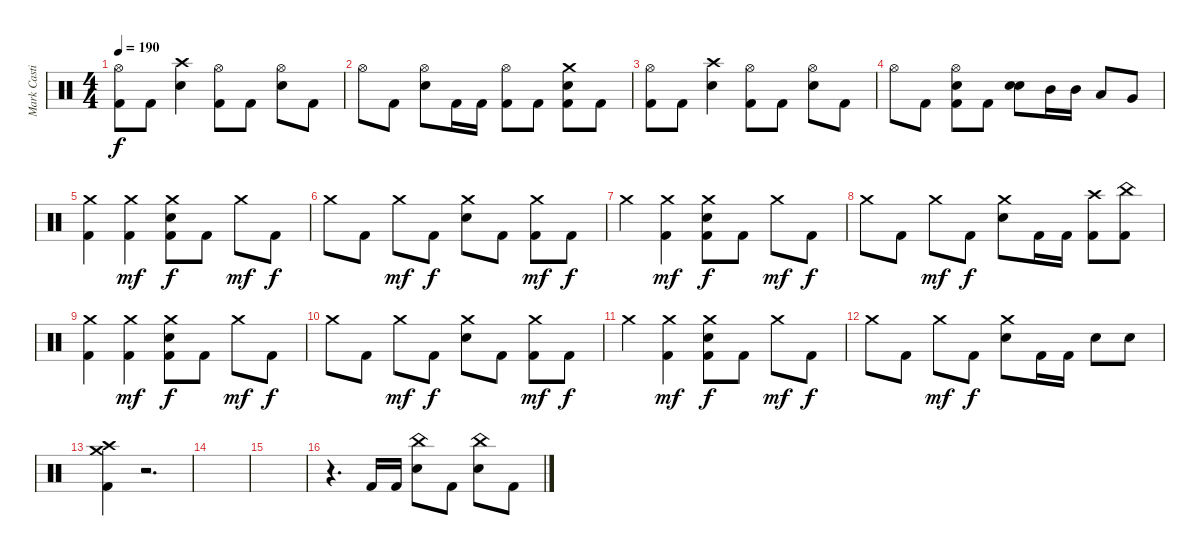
\track ("Mark Castillo" "Mark Casti") {instrument percussion}
\staff {score}
\articulation defaults
\ts (4 4)
\tempo 190
\clef neutral
\ks c
("Hi-Hat (open)" "Kick (hit) 2").8{dy f} "Kick (hit) 2".8 ("Crash high (hit)" "Electric Snare (hit)").4 ("Hi-Hat (open)" "Kick (hit) 2").8 "Kick (hit) 2".8 ("Hi-Hat (open)" "Electric Snare (hit)").8 "Kick (hit) 2".8 |
"Hi-Hat (open)".8 "Kick (hit) 2".8 ("Hi-Hat (open)" "Electric Snare (hit)").8 "Kick (hit) 2".16 "Kick (hit) 2".16 ("Hi-Hat (open)" "Kick (hit) 2").8 "Kick (hit) 2".8 ("Crash medium (hit)" "Electric Snare (hit)" "Kick (hit) 2").8 "Kick (hit) 2".8 |
("Hi-Hat (open)" "Kick (hit) 2").8 "Kick (hit) 2".8 ("Crash high (hit)" "Electric Snare (hit)").4 ("Hi-Hat (open)" "Kick (hit) 2").8 "Kick (hit) 2".8 ("Hi-Hat (open)" "Electric Snare (hit)").8 "Kick (hit) 2".8 |
"Hi-Hat (open)".8 "Kick (hit) 2".8 ("Hi-Hat (open)" "Electric Snare (hit)" "Kick (hit) 2").8 "Kick (hit) 2".8 ("Electric Snare (hit)" "Electric Snare (hit)").8{bd 120} "Mid Tom (hit)".16 "Mid Tom (hit)".16 "Low Tom (hit)".8 "Very Low Tom (hit)".8 |
("Crash medium (hit)" "Kick (hit) 2").4 ("Crash medium (hit)" "Kick (hit) 2").4{dy mf} ("Crash medium (hit)" "Electric Snare (hit)" "Kick (hit) 2").8{dy f} "Kick (hit) 2".8 "Crash medium (hit)".8{dy mf} "Kick (hit) 2".8{dy f} |
"Crash medium (hit)".8 "Kick (hit) 2".8 "Crash medium (hit)".8{dy mf} "Kick (hit) 2".8{dy f} ("Crash medium (hit)" "Electric Snare (hit)").8 "Kick (hit) 2".8 ("Crash medium (hit)" "Kick (hit) 2").8{dy mf} "Kick (hit) 2".8{dy f} |
"Crash medium (hit)".4 ("Crash medium (hit)" "Kick (hit) 2").4{dy mf} ("Crash medium (hit)" "Electric Snare (hit)" "Kick (hit) 2").8{dy f} "Kick (hit) 2".8 "Crash medium (hit)".8{dy mf} "Kick (hit) 2".8{dy f} |
"Crash medium (hit)".8 "Kick (hit) 2".8 "Crash medium (hit)".8{dy mf} "Kick (hit) 2".8{dy f} ("Crash medium (hit)" "Electric Snare (hit)").8 "Kick (hit) 2".16 "Kick (hit) 2".16 ("Crash high (hit)" "Kick (hit) 2").8 ("China (hit)" "Kick (hit) 2").8 |
("Crash medium (hit)" "Kick (hit) 2").4 ("Crash medium (hit)" "Kick (hit) 2").4{dy mf} ("Crash medium (hit)" "Electric Snare (hit)" "Kick (hit) 2").8{dy f} "Kick (hit) 2".8 "Crash medium (hit)".8{dy mf} "Kick (hit) 2".8{dy f} |
"Crash medium (hit)".8 "Kick (hit) 2".8 "Crash medium (hit)".8{dy mf} "Kick (hit) 2".8{dy f} ("Crash medium (hit)" "Electric Snare (hit)").8 "Kick (hit) 2".8 ("Crash medium (hit)" "Kick (hit) 2").8{dy mf} "Kick (hit) 2".8{dy f} |
"Crash medium (hit)".4 ("Crash medium (hit)" "Kick (hit) 2").4{dy mf} ("Crash medium (hit)" "Electric Snare (hit)" "Kick (hit) 2").8{dy f} "Kick (hit) 2".8 "Crash medium (hit)".8{dy mf} "Kick (hit) 2".8{dy f} |
"Crash medium (hit)".8 "Kick (hit) 2".8 "Crash medium (hit)".8{dy mf} "Kick (hit) 2".8{dy f} ("Crash medium (hit)" "Electric Snare (hit)").8 "Kick (hit) 2".16 "Kick (hit) 2".16 "Electric Snare (hit)".8 "Electric Snare (hit)".8 |
("Crash high (hit)" "Crash medium (hit)" "Kick (hit) 2").4 r.2{d volume 0} |
|
|
r.4{d} "Kick (hit) 2".16{volume 13} "Kick (hit) 2".16 ("China (hit)" "Electric Snare (hit)").8 "Kick (hit) 2".8 ("China (hit)" "Electric Snare (hit)").8 "Kick (hit) 2".8
